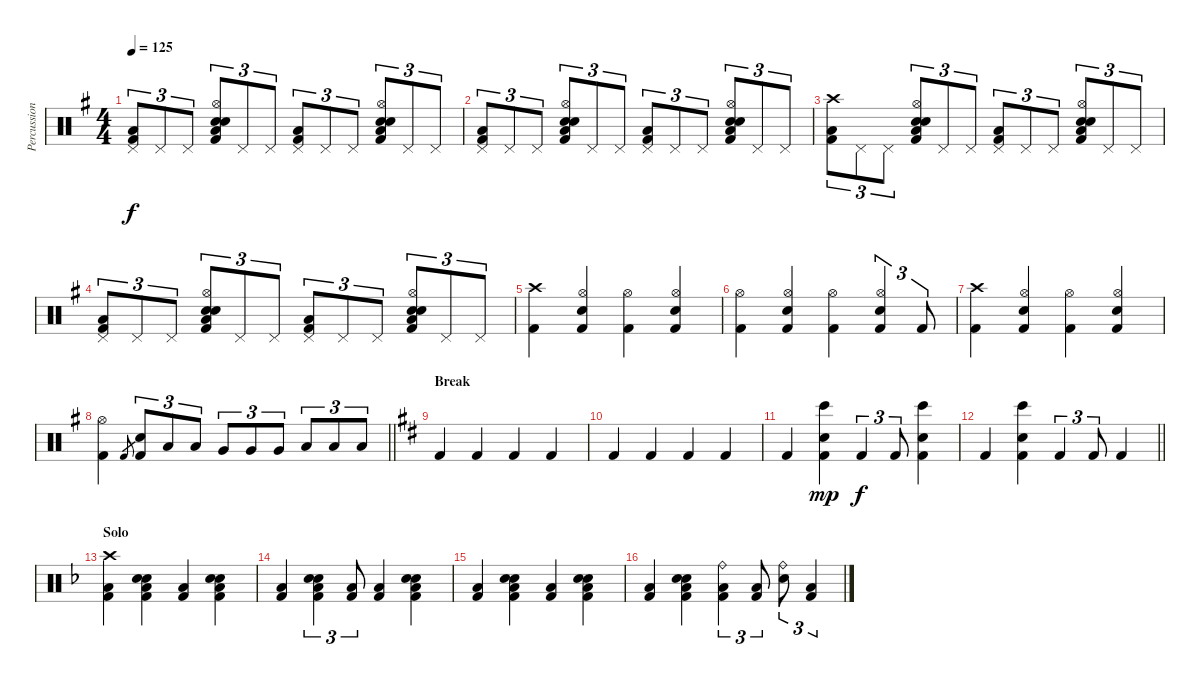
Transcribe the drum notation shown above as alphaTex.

\track ("Percussion" "Percussion") {instrument percussion}
\staff {score}
\articulation defaults
\ts (4 4)
\tempo 125
\clef neutral
\ks eminor
("Pedal Hi-Hat (hit)" "Low Floor Tom (hit)" "Kick (hit) 2").8{tu (3 2) dy f} "Pedal Hi-Hat (hit)".8{tu (3 2)} "Pedal Hi-Hat (hit)".8{tu (3 2)} ("Hi-Hat (open)" "Electric Snare (hit)" "Hand Clap (hit)" "Low Floor Tom (hit)" "Kick (hit) 2").8{tu (3 2)} "Pedal Hi-Hat (hit)".8{tu (3 2)} "Pedal Hi-Hat (hit)".8{tu (3 2)} ("Pedal Hi-Hat (hit)" "Low Floor Tom (hit)" "Kick (hit) 2").8{tu (3 2)} "Pedal Hi-Hat (hit)".8{tu (3 2)} "Pedal Hi-Hat (hit)".8{tu (3 2)} ("Hi-Hat (open)" "Electric Snare (hit)" "Hand Clap (hit)" "Low Floor Tom (hit)" "Kick (hit) 2").8{tu (3 2)} "Pedal Hi-Hat (hit)".8{tu (3 2)} "Pedal Hi-Hat (hit)".8{tu (3 2)} |
("Pedal Hi-Hat (hit)" "Low Floor Tom (hit)" "Kick (hit) 2").8{tu (3 2)} "Pedal Hi-Hat (hit)".8{tu (3 2)} "Pedal Hi-Hat (hit)".8{tu (3 2)} ("Hi-Hat (open)" "Electric Snare (hit)" "Hand Clap (hit)" "Low Floor Tom (hit)" "Kick (hit) 2").8{tu (3 2)} "Pedal Hi-Hat (hit)".8{tu (3 2)} "Pedal Hi-Hat (hit)".8{tu (3 2)} ("Pedal Hi-Hat (hit)" "Low Floor Tom (hit)" "Kick (hit) 2").8{tu (3 2)} "Pedal Hi-Hat (hit)".8{tu (3 2)} "Pedal Hi-Hat (hit)".8{tu (3 2)} ("Hi-Hat (open)" "Electric Snare (hit)" "Hand Clap (hit)" "Low Floor Tom (hit)" "Kick (hit) 2").8{tu (3 2)} "Pedal Hi-Hat (hit)".8{tu (3 2)} "Pedal Hi-Hat (hit)".8{tu (3 2)} |
("Crash high (hit)" "Low Floor Tom (hit)" "Kick (hit) 2").8{tu (3 2)} "Pedal Hi-Hat (hit)".8{tu (3 2)} "Pedal Hi-Hat (hit)".8{tu (3 2)} ("Hi-Hat (open)" "Electric Snare (hit)" "Hand Clap (hit)" "Low Floor Tom (hit)" "Kick (hit) 2").8{tu (3 2)} "Pedal Hi-Hat (hit)".8{tu (3 2)} "Pedal Hi-Hat (hit)".8{tu (3 2)} ("Pedal Hi-Hat (hit)" "Low Floor Tom (hit)" "Kick (hit) 2").8{tu (3 2)} "Pedal Hi-Hat (hit)".8{tu (3 2)} "Pedal Hi-Hat (hit)".8{tu (3 2)} ("Hi-Hat (open)" "Electric Snare (hit)" "Hand Clap (hit)" "Low Floor Tom (hit)" "Kick (hit) 2").8{tu (3 2)} "Pedal Hi-Hat (hit)".8{tu (3 2)} "Pedal Hi-Hat (hit)".8{tu (3 2)} |
("Pedal Hi-Hat (hit)" "Low Floor Tom (hit)" "Kick (hit) 2").8{tu (3 2)} "Pedal Hi-Hat (hit)".8{tu (3 2)} "Pedal Hi-Hat (hit)".8{tu (3 2)} ("Hi-Hat (open)" "Electric Snare (hit)" "Hand Clap (hit)" "Low Floor Tom (hit)" "Kick (hit) 2").8{tu (3 2)} "Pedal Hi-Hat (hit)".8{tu (3 2)} "Pedal Hi-Hat (hit)".8{tu (3 2)} ("Pedal Hi-Hat (hit)" "Low Floor Tom (hit)" "Kick (hit) 2").8{tu (3 2)} "Pedal Hi-Hat (hit)".8{tu (3 2)} "Pedal Hi-Hat (hit)".8{tu (3 2)} ("Hi-Hat (open)" "Electric Snare (hit)" "Hand Clap (hit)" "Low Floor Tom (hit)" "Kick (hit) 2").8{tu (3 2)} "Pedal Hi-Hat (hit)".8{tu (3 2)} "Pedal Hi-Hat (hit)".8{tu (3 2)} |
("Crash high (hit)" "Kick (hit) 2").4 ("Hi-Hat (open)" "Electric Snare (hit)" "Kick (hit) 2").4 ("Hi-Hat (open)" "Kick (hit) 2").4 ("Hi-Hat (open)" "Electric Snare (hit)" "Kick (hit) 2").4 |
("Hi-Hat (open)" "Kick (hit) 2").4 ("Hi-Hat (open)" "Electric Snare (hit)" "Kick (hit) 2").4 ("Hi-Hat (open)" "Kick (hit) 2").4 ("Hi-Hat (open)" "Electric Snare (hit)" "Kick (hit) 2").4{tu (3 2)} "Kick (hit) 2".8{tu (3 2)} |
("Crash high (hit)" "Kick (hit) 2").4 ("Hi-Hat (open)" "Electric Snare (hit)" "Kick (hit) 2").4 ("Hi-Hat (open)" "Kick (hit) 2").4 ("Hi-Hat (open)" "Electric Snare (hit)" "Kick (hit) 2").4 |
\barLineRight lightlight
("Hi-Hat (open)" "Kick (hit) 2").4 "Kick (hit) 2".8{gr} ("Electric Snare (hit)" "Kick (hit) 2").8{tu (3 2)} "Low Tom (hit)".8{tu (3 2)} "Low Tom (hit)".8{tu (3 2)} "Very Low Tom (hit)".8{tu (3 2)} "Very Low Tom (hit)".8{tu (3 2)} "Very Low Tom (hit)".8{tu (3 2)} "Low Floor Tom (hit)".8{tu (3 2)} "Low Floor Tom (hit)".8{tu (3 2)} "Low Floor Tom (hit)".8{tu (3 2)} |
\section ("" "Break")
\ks bminor "Kick (hit) 2".4{volume 5} "Kick (hit) 2".4 "Kick (hit) 2".4 "Kick (hit) 2".4
|
"Kick (hit) 2".4 "Kick (hit) 2".4 "Kick (hit) 2".4 "Kick (hit) 2".4 |
"Kick (hit) 2".4{volume 12} ("Bongo High (hit)" "Hand Clap (hit)" "Kick (hit) 2").4{dy mp} "Kick (hit) 2".4{tu (3 2) dy f} "Kick (hit) 2".8{tu (3 2)} ("Bongo High (hit)" "Hand Clap (hit)" "Kick (hit) 2").4 |
\barLineRight lightlight "Kick (hit) 2".4
("Bongo High (hit)" "Hand Clap (hit)" "Kick (hit) 2").4 "Kick (hit) 2".4{tu (3 2)} "Kick (hit) 2".8{tu (3 2)} "Kick (hit) 2".4 |
\section ("" "Solo")
\ks dminor
("Crash high (hit)" "Low Floor Tom (hit)" "Kick (hit) 2").4{volume 13} ("Electric Snare (hit)" "Hand Clap (hit)" "Low Floor Tom (hit)" "Kick (hit) 2").4 ("Low Floor Tom (hit)" "Kick (hit) 2").4 ("Electric Snare (hit)" "Hand Clap (hit)" "Low Floor Tom (hit)" "Kick (hit) 2").4 |
("Low Floor Tom (hit)" "Kick (hit) 2").4 ("Electric Snare (hit)" "Hand Clap (hit)" "Low Floor Tom (hit)" "Kick (hit) 2").4{tu (3 2)} ("Low Floor Tom (hit)" "Kick (hit) 2").8{tu (3 2)} ("Low Floor Tom (hit)" "Kick (hit) 2").4 ("Electric Snare (hit)" "Hand Clap (hit)" "Low Floor Tom (hit)" "Kick (hit) 2").4 |
("Low Floor Tom (hit)" "Kick (hit) 2").4 ("Electric Snare (hit)" "Hand Clap (hit)" "Low Floor Tom (hit)" "Kick (hit) 2").4 ("Low Floor Tom (hit)" "Kick (hit) 2").4 ("Electric Snare (hit)" "Hand Clap (hit)" "Low Floor Tom (hit)" "Kick (hit) 2").4 |
("Low Floor Tom (hit)" "Kick (hit) 2").4 ("Electric Snare (hit)" "Hand Clap (hit)" "Low Floor Tom (hit)" "Kick (hit) 2").4 ("Ride (bell)" "Low Floor Tom (hit)" "Kick (hit) 2").4{tu (3 2)} ("Low Floor Tom (hit)" "Kick (hit) 2").8{tu (3 2)} ("Ride (bell)" "Electric Snare (hit)").8{tu (3 2)} ("Low Floor Tom (hit)" "Kick (hit) 2").4{tu (3 2)}
